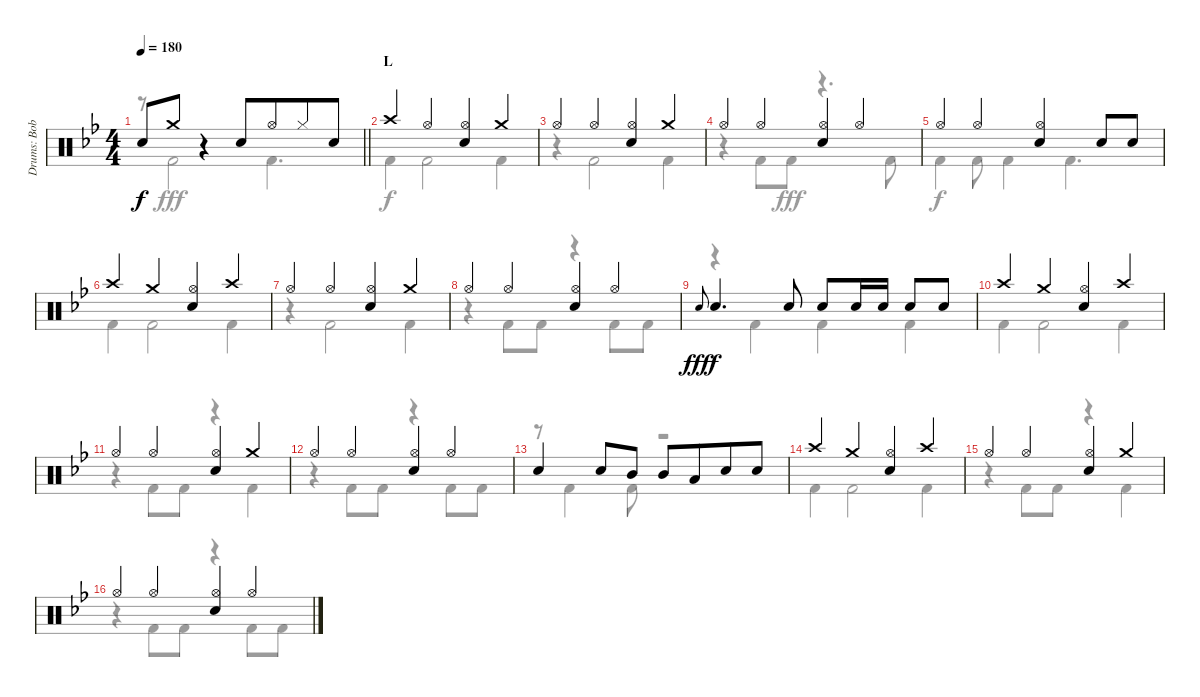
\track ("Drums: Bobby" "Drums: Bob") {instrument percussion}
\staff {score}
\articulation defaults
\voice
\ts (4 4)
\tempo 180
\clef neutral
\barLineRight lightlight
\ks bb "Snare (hit) 2".8{dy f} "Crash medium (hit)".8
r.4 "Snare (hit) 2".8 "Hi-Hat (open)".8{beam merge} "Hi-Hat (closed)".8 "Snare (hit) 2".8 |
\section ("" "L")
"Crash high (hit)".4 "Hi-Hat (open)".4 ("Hi-Hat (open)" "Snare (hit) 2").4 "Crash medium (hit)".4 |
"Hi-Hat (open)".4 "Hi-Hat (open)".4 ("Hi-Hat (open)" "Snare (hit) 2").4 "Crash medium (hit)".4 |
"Hi-Hat (open)".4 "Hi-Hat (open)".4 ("Hi-Hat (open)" "Snare (hit) 2").4 "Hi-Hat (open)".4 |
"Hi-Hat (open)".4 "Hi-Hat (open)".4 ("Hi-Hat (open)" "Snare (hit) 2").4 "Snare (hit) 2".8 "Snare (hit) 2".8 |
"Crash high (hit)".4 "Crash medium (hit)".4 ("Hi-Hat (open)" "Snare (hit) 2").4 "Crash high (hit)".4 |
"Hi-Hat (open)".4 "Hi-Hat (open)".4 ("Hi-Hat (open)" "Snare (hit) 2").4 "Crash medium (hit)".4 |
"Hi-Hat (open)".4 "Hi-Hat (open)".4 ("Hi-Hat (open)" "Snare (hit) 2").4 "Hi-Hat (open)".4 |
"Electric Snare (hit)".8{gr onbeat dy fff} "Snare (hit) 2".4{d dy f} "Snare (hit) 2".8 "Snare (hit) 2".8 "Snare (hit) 2".16 "Snare (hit) 2".16 "Snare (hit) 2".8 "Snare (hit) 2".8 |
"Crash high (hit)".4 "Crash medium (hit)".4 ("Hi-Hat (open)" "Snare (hit) 2").4 "Crash high (hit)".4 |
"Hi-Hat (open)".4 "Hi-Hat (open)".4 ("Hi-Hat (open)" "Snare (hit) 2").4 "Crash medium (hit)".4 |
"Hi-Hat (open)".4 "Hi-Hat (open)".4 ("Hi-Hat (open)" "Snare (hit) 2").4 "Hi-Hat (open)".4 |
"Snare (hit) 2".4 "Snare (hit) 2".8 "Mid Tom (hit)".8 "Mid Tom (hit)".8 "Low Tom (hit)".8{beam merge} "Snare (hit) 2".8 "Snare (hit) 2".8 |
"Crash high (hit)".4 "Crash medium (hit)".4 ("Hi-Hat (open)" "Snare (hit) 2").4 "Crash high (hit)".4 |
"Hi-Hat (open)".4 "Hi-Hat (open)".4 ("Hi-Hat (open)" "Snare (hit) 2").4 "Crash medium (hit)".4 |
"Hi-Hat (open)".4 "Hi-Hat (open)".4 ("Hi-Hat (open)" "Snare (hit) 2").4 "Hi-Hat (open)".4
\voice
\clef neutral
\ottava regular
\simile none
\barLineRight lightlight
\ks bb
r.8{dy f} "Kick (hit) 2".2{dy fff} "Kick (hit) 2".4{d} |
"Kick (hit) 2".4{dy f} "Kick (hit) 2".2 "Kick (hit) 2".4 |
r.4 "Kick (hit) 2".2 "Kick (hit) 2".4 |
r.4 "Kick (hit) 2".8 "Kick (hit) 2".8{dy fff} r.4{d} "Kick (hit) 2".8 |
"Kick (hit) 2".4{dy f} "Kick (hit) 2".8 "Kick (hit) 2".4 "Kick (hit) 2".4{d} |
"Kick (hit) 2".4 "Kick (hit) 2".2 "Kick (hit) 2".4 |
r.4 "Kick (hit) 2".2 "Kick (hit) 2".4 |
r.4 "Kick (hit) 2".8 "Kick (hit) 2".8 r.4 "Kick (hit) 2".8 "Kick (hit) 2".8 |
r.4 "Kick (hit) 2".4 "Kick (hit) 2".4 "Kick (hit) 2".4 |
"Kick (hit) 2".4 "Kick (hit) 2".2 "Kick (hit) 2".4 |
r.4 "Kick (hit) 2".8 "Kick (hit) 2".8 r.4 "Kick (hit) 2".4 |
r.4 "Kick (hit) 2".8 "Kick (hit) 2".8 r.4 "Kick (hit) 2".8 "Kick (hit) 2".8 |
r.8 "Kick (hit) 2".4 "Kick (hit) 2".8 r.2 |
"Kick (hit) 2".4 "Kick (hit) 2".2 "Kick (hit) 2".4 |
r.4 "Kick (hit) 2".8 "Kick (hit) 2".8 r.4 "Kick (hit) 2".4 |
r.4 "Kick (hit) 2".8 "Kick (hit) 2".8 r.4 "Kick (hit) 2".8 "Kick (hit) 2".8
